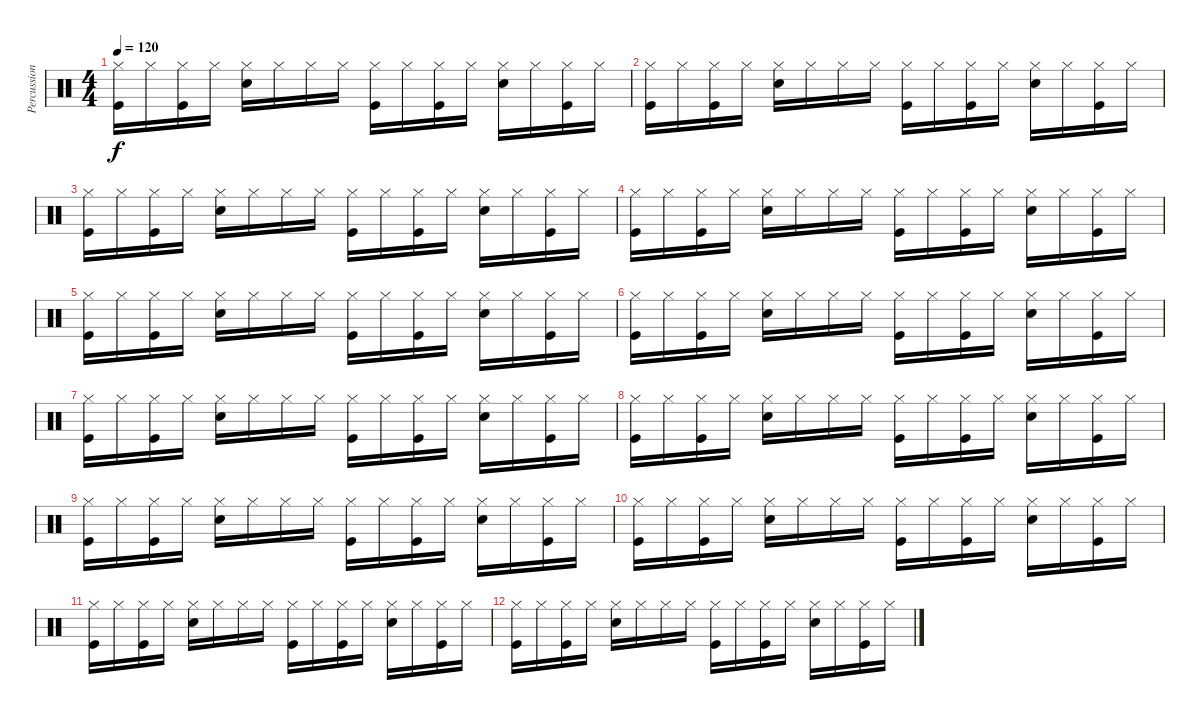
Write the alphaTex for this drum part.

\track ("Percussion" "Percussion") {instrument percussion}
\staff {score}
\articulation defaults
\ts (4 4)
\tempo 120
\clef neutral
\ks c
("Hi-Hat (closed)" "Kick (hit)").16{dy f} "Hi-Hat (closed)".16 ("Hi-Hat (closed)" "Kick (hit)").16 "Hi-Hat (closed)".16 ("Hi-Hat (closed)" "Snare (hit) 2").16 "Hi-Hat (closed)".16 "Hi-Hat (closed)".16 "Hi-Hat (closed)".16 ("Hi-Hat (closed)" "Kick (hit)").16 "Hi-Hat (closed)".16 ("Hi-Hat (closed)" "Kick (hit)").16 "Hi-Hat (closed)".16 ("Hi-Hat (closed)" "Snare (hit) 2").16 "Hi-Hat (closed)".16 ("Hi-Hat (closed)" "Kick (hit)").16 "Hi-Hat (closed)".16 |
("Hi-Hat (closed)" "Kick (hit)").16 "Hi-Hat (closed)".16 ("Hi-Hat (closed)" "Kick (hit)").16 "Hi-Hat (closed)".16 ("Hi-Hat (closed)" "Snare (hit) 2").16 "Hi-Hat (closed)".16 "Hi-Hat (closed)".16 "Hi-Hat (closed)".16 ("Hi-Hat (closed)" "Kick (hit)").16 "Hi-Hat (closed)".16 ("Hi-Hat (closed)" "Kick (hit)").16 "Hi-Hat (closed)".16 ("Hi-Hat (closed)" "Snare (hit) 2").16 "Hi-Hat (closed)".16 ("Hi-Hat (closed)" "Kick (hit)").16 "Hi-Hat (closed)".16 |
("Hi-Hat (closed)" "Kick (hit)").16 "Hi-Hat (closed)".16 ("Hi-Hat (closed)" "Kick (hit)").16 "Hi-Hat (closed)".16 ("Hi-Hat (closed)" "Snare (hit) 2").16 "Hi-Hat (closed)".16 "Hi-Hat (closed)".16 "Hi-Hat (closed)".16 ("Hi-Hat (closed)" "Kick (hit)").16 "Hi-Hat (closed)".16 ("Hi-Hat (closed)" "Kick (hit)").16 "Hi-Hat (closed)".16 ("Hi-Hat (closed)" "Snare (hit) 2").16 "Hi-Hat (closed)".16 ("Hi-Hat (closed)" "Kick (hit)").16 "Hi-Hat (closed)".16 |
("Hi-Hat (closed)" "Kick (hit)").16 "Hi-Hat (closed)".16 ("Hi-Hat (closed)" "Kick (hit)").16 "Hi-Hat (closed)".16 ("Hi-Hat (closed)" "Snare (hit) 2").16 "Hi-Hat (closed)".16 "Hi-Hat (closed)".16 "Hi-Hat (closed)".16 ("Hi-Hat (closed)" "Kick (hit)").16 "Hi-Hat (closed)".16 ("Hi-Hat (closed)" "Kick (hit)").16 "Hi-Hat (closed)".16 ("Hi-Hat (closed)" "Snare (hit) 2").16 "Hi-Hat (closed)".16 ("Hi-Hat (closed)" "Kick (hit)").16 "Hi-Hat (closed)".16 |
("Hi-Hat (closed)" "Kick (hit)").16 "Hi-Hat (closed)".16 ("Hi-Hat (closed)" "Kick (hit)").16 "Hi-Hat (closed)".16 ("Hi-Hat (closed)" "Snare (hit) 2").16 "Hi-Hat (closed)".16 "Hi-Hat (closed)".16 "Hi-Hat (closed)".16 ("Hi-Hat (closed)" "Kick (hit)").16 "Hi-Hat (closed)".16 ("Hi-Hat (closed)" "Kick (hit)").16 "Hi-Hat (closed)".16 ("Hi-Hat (closed)" "Snare (hit) 2").16 "Hi-Hat (closed)".16 ("Hi-Hat (closed)" "Kick (hit)").16 "Hi-Hat (closed)".16 |
("Hi-Hat (closed)" "Kick (hit)").16 "Hi-Hat (closed)".16 ("Hi-Hat (closed)" "Kick (hit)").16 "Hi-Hat (closed)".16 ("Hi-Hat (closed)" "Snare (hit) 2").16 "Hi-Hat (closed)".16 "Hi-Hat (closed)".16 "Hi-Hat (closed)".16 ("Hi-Hat (closed)" "Kick (hit)").16 "Hi-Hat (closed)".16 ("Hi-Hat (closed)" "Kick (hit)").16 "Hi-Hat (closed)".16 ("Hi-Hat (closed)" "Snare (hit) 2").16 "Hi-Hat (closed)".16 ("Hi-Hat (closed)" "Kick (hit)").16 "Hi-Hat (closed)".16 |
("Hi-Hat (closed)" "Kick (hit)").16 "Hi-Hat (closed)".16 ("Hi-Hat (closed)" "Kick (hit)").16 "Hi-Hat (closed)".16 ("Hi-Hat (closed)" "Snare (hit) 2").16 "Hi-Hat (closed)".16 "Hi-Hat (closed)".16 "Hi-Hat (closed)".16 ("Hi-Hat (closed)" "Kick (hit)").16 "Hi-Hat (closed)".16 ("Hi-Hat (closed)" "Kick (hit)").16 "Hi-Hat (closed)".16 ("Hi-Hat (closed)" "Snare (hit) 2").16 "Hi-Hat (closed)".16 ("Hi-Hat (closed)" "Kick (hit)").16 "Hi-Hat (closed)".16 |
("Hi-Hat (closed)" "Kick (hit)").16 "Hi-Hat (closed)".16 ("Hi-Hat (closed)" "Kick (hit)").16 "Hi-Hat (closed)".16 ("Hi-Hat (closed)" "Snare (hit) 2").16 "Hi-Hat (closed)".16 "Hi-Hat (closed)".16 "Hi-Hat (closed)".16 ("Hi-Hat (closed)" "Kick (hit)").16 "Hi-Hat (closed)".16 ("Hi-Hat (closed)" "Kick (hit)").16 "Hi-Hat (closed)".16 ("Hi-Hat (closed)" "Snare (hit) 2").16 "Hi-Hat (closed)".16 ("Hi-Hat (closed)" "Kick (hit)").16 "Hi-Hat (closed)".16 |
("Hi-Hat (closed)" "Kick (hit)").16 "Hi-Hat (closed)".16 ("Hi-Hat (closed)" "Kick (hit)").16 "Hi-Hat (closed)".16 ("Hi-Hat (closed)" "Snare (hit) 2").16 "Hi-Hat (closed)".16 "Hi-Hat (closed)".16 "Hi-Hat (closed)".16 ("Hi-Hat (closed)" "Kick (hit)").16 "Hi-Hat (closed)".16 ("Hi-Hat (closed)" "Kick (hit)").16 "Hi-Hat (closed)".16 ("Hi-Hat (closed)" "Snare (hit) 2").16 "Hi-Hat (closed)".16 ("Hi-Hat (closed)" "Kick (hit)").16 "Hi-Hat (closed)".16 |
("Hi-Hat (closed)" "Kick (hit)").16 "Hi-Hat (closed)".16 ("Hi-Hat (closed)" "Kick (hit)").16 "Hi-Hat (closed)".16 ("Hi-Hat (closed)" "Snare (hit) 2").16 "Hi-Hat (closed)".16 "Hi-Hat (closed)".16 "Hi-Hat (closed)".16 ("Hi-Hat (closed)" "Kick (hit)").16 "Hi-Hat (closed)".16 ("Hi-Hat (closed)" "Kick (hit)").16 "Hi-Hat (closed)".16 ("Hi-Hat (closed)" "Snare (hit) 2").16 "Hi-Hat (closed)".16 ("Hi-Hat (closed)" "Kick (hit)").16 "Hi-Hat (closed)".16 |
("Hi-Hat (closed)" "Kick (hit)").16 "Hi-Hat (closed)".16 ("Hi-Hat (closed)" "Kick (hit)").16 "Hi-Hat (closed)".16 ("Hi-Hat (closed)" "Snare (hit) 2").16 "Hi-Hat (closed)".16 "Hi-Hat (closed)".16 "Hi-Hat (closed)".16 ("Hi-Hat (closed)" "Kick (hit)").16 "Hi-Hat (closed)".16 ("Hi-Hat (closed)" "Kick (hit)").16 "Hi-Hat (closed)".16 ("Hi-Hat (closed)" "Snare (hit) 2").16 "Hi-Hat (closed)".16 ("Hi-Hat (closed)" "Kick (hit)").16 "Hi-Hat (closed)".16 |
("Hi-Hat (closed)" "Kick (hit)").16 "Hi-Hat (closed)".16 ("Hi-Hat (closed)" "Kick (hit)").16 "Hi-Hat (closed)".16 ("Hi-Hat (closed)" "Snare (hit) 2").16 "Hi-Hat (closed)".16 "Hi-Hat (closed)".16 "Hi-Hat (closed)".16 ("Hi-Hat (closed)" "Kick (hit)").16 "Hi-Hat (closed)".16 ("Hi-Hat (closed)" "Kick (hit)").16 "Hi-Hat (closed)".16 ("Hi-Hat (closed)" "Snare (hit) 2").16 "Hi-Hat (closed)".16 ("Hi-Hat (closed)" "Kick (hit)").16 "Hi-Hat (closed)".16
